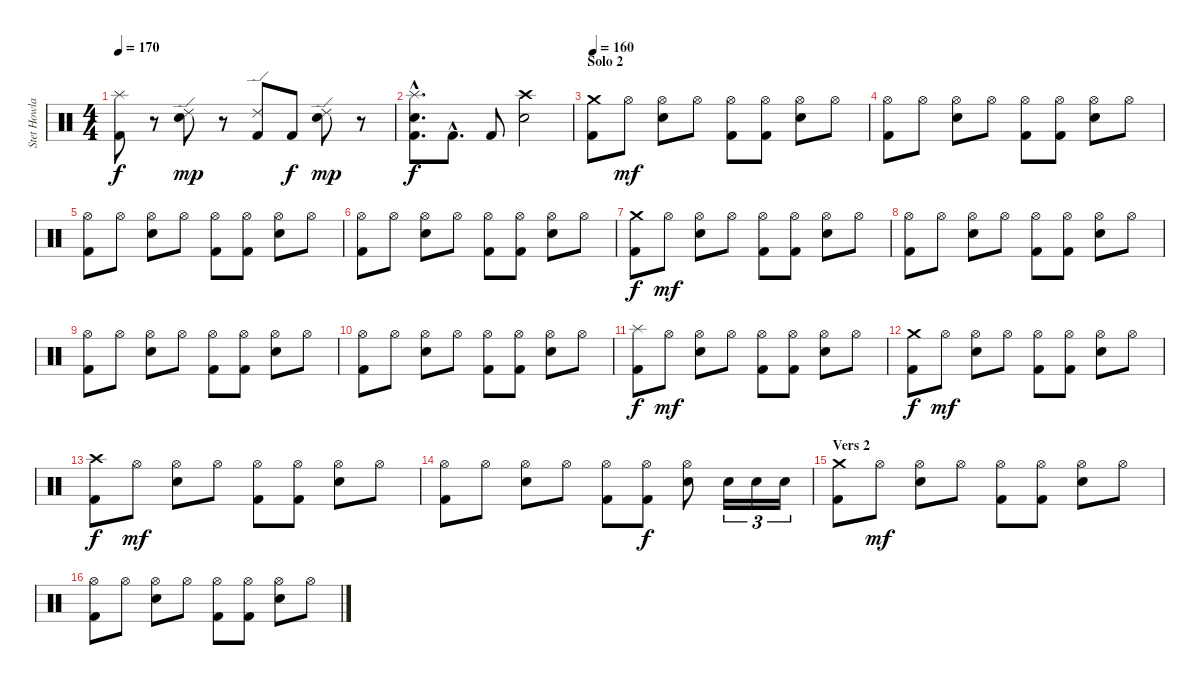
\track ("Stet Howland" "Stet Howla") {instrument percussion}
\staff {score}
\articulation defaults
\ts (4 4)
\tempo 170
\clef neutral
\ks c
("Splash (hit)" "Kick (hit) 2").8{dy f} r.8 ("Ride (edge) 2" "Electric Snare (hit)").8{dy mp} r.8 ("Ride (edge) 2" "Kick (hit) 2").8 "Kick (hit) 2".8{dy f} ("Ride (edge) 2" "Electric Snare (hit)").8{dy mp} r.8 |
("Splash (hit)"{hac} "Electric Snare (hit)"{hac} "Kick (hit) 2"{hac}).8{d dy f} "Kick (hit) 2"{hac}.8{d} "Kick (hit) 2".8 ("Crash high (hit)" "Electric Snare (hit)").2 |
\section ("" "Solo 2")
\tempo 160
("Crash medium (hit)" "Kick (hit) 2").8 "Hi-Hat (open)".8{dy mf} ("Hi-Hat (open)" "Electric Snare (hit)").8 "Hi-Hat (open)".8 ("Hi-Hat (open)" "Kick (hit) 2").8 ("Hi-Hat (open)" "Kick (hit) 2").8 ("Hi-Hat (open)" "Electric Snare (hit)").8 "Hi-Hat (open)".8 |
("Hi-Hat (open)" "Kick (hit) 2").8 "Hi-Hat (open)".8 ("Hi-Hat (open)" "Electric Snare (hit)").8 "Hi-Hat (open)".8 ("Hi-Hat (open)" "Kick (hit) 2").8 ("Hi-Hat (open)" "Kick (hit) 2").8 ("Hi-Hat (open)" "Electric Snare (hit)").8 "Hi-Hat (open)".8 |
("Hi-Hat (open)" "Kick (hit) 2").8 "Hi-Hat (open)".8 ("Hi-Hat (open)" "Electric Snare (hit)").8 "Hi-Hat (open)".8 ("Hi-Hat (open)" "Kick (hit) 2").8 ("Hi-Hat (open)" "Kick (hit) 2").8 ("Hi-Hat (open)" "Electric Snare (hit)").8 "Hi-Hat (open)".8 |
("Hi-Hat (open)" "Kick (hit) 2").8 "Hi-Hat (open)".8 ("Hi-Hat (open)" "Electric Snare (hit)").8 "Hi-Hat (open)".8 ("Hi-Hat (open)" "Kick (hit) 2").8 ("Hi-Hat (open)" "Kick (hit) 2").8 ("Hi-Hat (open)" "Electric Snare (hit)").8 "Hi-Hat (open)".8 |
("Crash medium (hit)" "Kick (hit) 2").8{dy f} "Hi-Hat (open)".8{dy mf} ("Hi-Hat (open)" "Electric Snare (hit)").8 "Hi-Hat (open)".8 ("Hi-Hat (open)" "Kick (hit) 2").8 ("Hi-Hat (open)" "Kick (hit) 2").8 ("Hi-Hat (open)" "Electric Snare (hit)").8 "Hi-Hat (open)".8 |
("Hi-Hat (open)" "Kick (hit) 2").8 "Hi-Hat (open)".8 ("Hi-Hat (open)" "Electric Snare (hit)").8 "Hi-Hat (open)".8 ("Hi-Hat (open)" "Kick (hit) 2").8 ("Hi-Hat (open)" "Kick (hit) 2").8 ("Hi-Hat (open)" "Electric Snare (hit)").8 "Hi-Hat (open)".8 |
("Hi-Hat (open)" "Kick (hit) 2").8 "Hi-Hat (open)".8 ("Hi-Hat (open)" "Electric Snare (hit)").8 "Hi-Hat (open)".8 ("Hi-Hat (open)" "Kick (hit) 2").8 ("Hi-Hat (open)" "Kick (hit) 2").8 ("Hi-Hat (open)" "Electric Snare (hit)").8 "Hi-Hat (open)".8 |
("Hi-Hat (open)" "Kick (hit) 2").8 "Hi-Hat (open)".8 ("Hi-Hat (open)" "Electric Snare (hit)").8 "Hi-Hat (open)".8 ("Hi-Hat (open)" "Kick (hit) 2").8 ("Hi-Hat (open)" "Kick (hit) 2").8 ("Hi-Hat (open)" "Electric Snare (hit)").8 "Hi-Hat (open)".8 |
("Splash (hit)" "Kick (hit) 2").8{dy f} "Hi-Hat (open)".8{dy mf} ("Hi-Hat (open)" "Electric Snare (hit)").8 "Hi-Hat (open)".8 ("Hi-Hat (open)" "Kick (hit) 2").8 ("Hi-Hat (open)" "Kick (hit) 2").8 ("Hi-Hat (open)" "Electric Snare (hit)").8 "Hi-Hat (open)".8 |
("Crash medium (hit)" "Kick (hit) 2").8{dy f} "Hi-Hat (open)".8{dy mf} ("Hi-Hat (open)" "Electric Snare (hit)").8 "Hi-Hat (open)".8 ("Hi-Hat (open)" "Kick (hit) 2").8 ("Hi-Hat (open)" "Kick (hit) 2").8 ("Hi-Hat (open)" "Electric Snare (hit)").8 "Hi-Hat (open)".8 |
("Crash high (hit)" "Kick (hit) 2").8{dy f} "Hi-Hat (open)".8{dy mf} ("Hi-Hat (open)" "Electric Snare (hit)").8 "Hi-Hat (open)".8 ("Hi-Hat (open)" "Kick (hit) 2").8 ("Hi-Hat (open)" "Kick (hit) 2").8 ("Hi-Hat (open)" "Electric Snare (hit)").8 "Hi-Hat (open)".8 |
("Hi-Hat (open)" "Kick (hit) 2").8 "Hi-Hat (open)".8 ("Hi-Hat (open)" "Electric Snare (hit)").8 "Hi-Hat (open)".8 ("Hi-Hat (open)" "Kick (hit) 2").8 ("Hi-Hat (open)" "Kick (hit) 2").8{dy f} ("Hi-Hat (open)" "Electric Snare (hit)").8 "Electric Snare (hit)".16{tu (3 2)} "Electric Snare (hit)".16{tu (3 2)} "Electric Snare (hit)".16{tu (3 2)} |
\section ("" "Vers 2")
("Crash medium (hit)" "Kick (hit) 2").8 "Hi-Hat (open)".8{dy mf} ("Hi-Hat (open)" "Electric Snare (hit)").8 "Hi-Hat (open)".8 ("Hi-Hat (open)" "Kick (hit) 2").8 ("Hi-Hat (open)" "Kick (hit) 2").8 ("Hi-Hat (open)" "Electric Snare (hit)").8 "Hi-Hat (open)".8 |
("Hi-Hat (open)" "Kick (hit) 2").8 "Hi-Hat (open)".8 ("Hi-Hat (open)" "Electric Snare (hit)").8 "Hi-Hat (open)".8 ("Hi-Hat (open)" "Kick (hit) 2").8 ("Hi-Hat (open)" "Kick (hit) 2").8 ("Hi-Hat (open)" "Electric Snare (hit)").8 "Hi-Hat (open)".8
